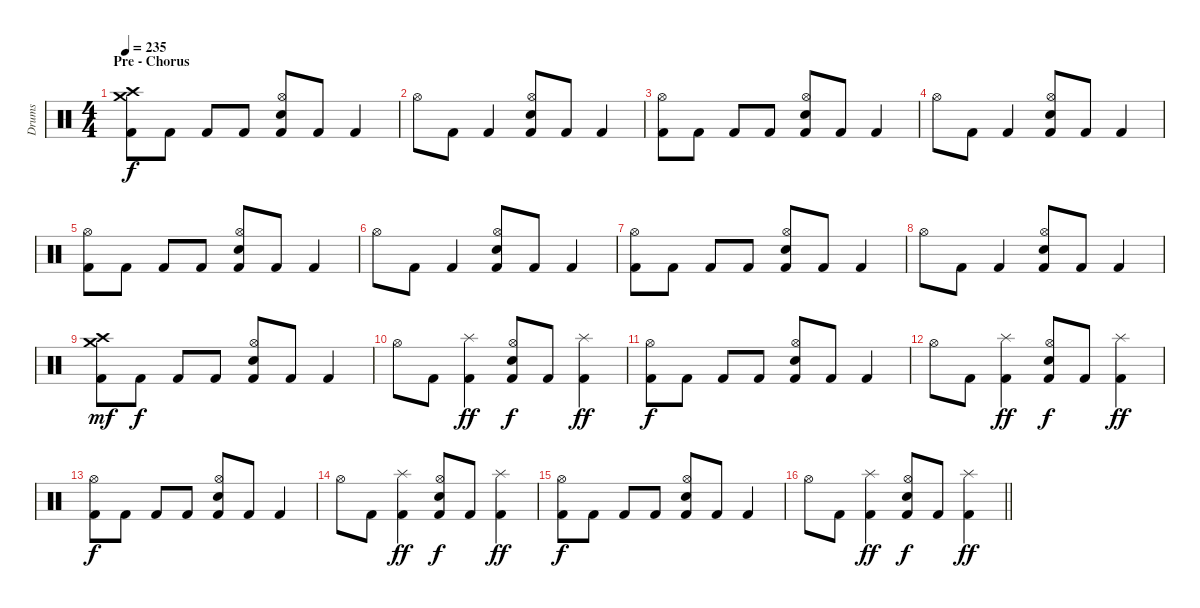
\track ("Drums" "Drums") {instrument percussion}
\staff {score}
\articulation defaults
\ts (4 4)
\section ("" "Pre - Chorus")
\tempo 235
\clef neutral
\ks c
("Crash medium (hit)" "Crash high (hit)" "Kick (hit) 2").8{dy f} "Kick (hit) 2".8 "Kick (hit) 2".8 "Kick (hit) 2".8 ("Hi-Hat (open)" "Electric Snare (hit)" "Kick (hit) 2").8 "Kick (hit) 2".8 "Kick (hit) 2".4 |
"Hi-Hat (open)".8 "Kick (hit) 2".8 "Kick (hit) 2".4 ("Hi-Hat (open)" "Electric Snare (hit)" "Kick (hit) 2").8 "Kick (hit) 2".8 "Kick (hit) 2".4 |
("Hi-Hat (open)" "Kick (hit) 2").8 "Kick (hit) 2".8 "Kick (hit) 2".8 "Kick (hit) 2".8 ("Hi-Hat (open)" "Electric Snare (hit)" "Kick (hit) 2").8 "Kick (hit) 2".8 "Kick (hit) 2".4 |
"Hi-Hat (open)".8 "Kick (hit) 2".8 "Kick (hit) 2".4 ("Hi-Hat (open)" "Electric Snare (hit)" "Kick (hit) 2").8 "Kick (hit) 2".8 "Kick (hit) 2".4 |
("Hi-Hat (open)" "Kick (hit) 2").8 "Kick (hit) 2".8 "Kick (hit) 2".8 "Kick (hit) 2".8 ("Hi-Hat (open)" "Electric Snare (hit)" "Kick (hit) 2").8 "Kick (hit) 2".8 "Kick (hit) 2".4 |
"Hi-Hat (open)".8 "Kick (hit) 2".8 "Kick (hit) 2".4 ("Hi-Hat (open)" "Electric Snare (hit)" "Kick (hit) 2").8 "Kick (hit) 2".8 "Kick (hit) 2".4 |
("Hi-Hat (open)" "Kick (hit) 2").8 "Kick (hit) 2".8 "Kick (hit) 2".8 "Kick (hit) 2".8 ("Hi-Hat (open)" "Electric Snare (hit)" "Kick (hit) 2").8 "Kick (hit) 2".8 "Kick (hit) 2".4 |
"Hi-Hat (open)".8 "Kick (hit) 2".8 "Kick (hit) 2".4 ("Hi-Hat (open)" "Electric Snare (hit)" "Kick (hit) 2").8 "Kick (hit) 2".8 "Kick (hit) 2".4 |
("Crash medium (hit)" "Crash high (hit)" "Kick (hit) 2").8{dy mf} "Kick (hit) 2".8{dy f} "Kick (hit) 2".8 "Kick (hit) 2".8 ("Hi-Hat (open)" "Electric Snare (hit)" "Kick (hit) 2").8 "Kick (hit) 2".8 "Kick (hit) 2".4 |
"Hi-Hat (open)".8 "Kick (hit) 2".8 ("Splash (hit)" "Kick (hit) 2").4{dy ff} ("Hi-Hat (open)" "Electric Snare (hit)" "Kick (hit) 2").8{dy f} "Kick (hit) 2".8 ("Splash (hit)" "Kick (hit) 2").4{dy ff} |
("Hi-Hat (open)" "Kick (hit) 2").8{dy f} "Kick (hit) 2".8 "Kick (hit) 2".8 "Kick (hit) 2".8 ("Hi-Hat (open)" "Electric Snare (hit)" "Kick (hit) 2").8 "Kick (hit) 2".8 "Kick (hit) 2".4 |
"Hi-Hat (open)".8 "Kick (hit) 2".8 ("Splash (hit)" "Kick (hit) 2").4{dy ff} ("Hi-Hat (open)" "Electric Snare (hit)" "Kick (hit) 2").8{dy f} "Kick (hit) 2".8 ("Splash (hit)" "Kick (hit) 2").4{dy ff} |
("Hi-Hat (open)" "Kick (hit) 2").8{dy f} "Kick (hit) 2".8 "Kick (hit) 2".8 "Kick (hit) 2".8 ("Hi-Hat (open)" "Electric Snare (hit)" "Kick (hit) 2").8 "Kick (hit) 2".8 "Kick (hit) 2".4 |
"Hi-Hat (open)".8 "Kick (hit) 2".8 ("Splash (hit)" "Kick (hit) 2").4{dy ff} ("Hi-Hat (open)" "Electric Snare (hit)" "Kick (hit) 2").8{dy f} "Kick (hit) 2".8 ("Splash (hit)" "Kick (hit) 2").4{dy ff} |
("Hi-Hat (open)" "Kick (hit) 2").8{dy f} "Kick (hit) 2".8 "Kick (hit) 2".8 "Kick (hit) 2".8 ("Hi-Hat (open)" "Electric Snare (hit)" "Kick (hit) 2").8 "Kick (hit) 2".8 "Kick (hit) 2".4 |
\barLineRight lightlight "Hi-Hat (open)".8 "Kick (hit) 2".8
("Splash (hit)" "Kick (hit) 2").4{dy ff} ("Hi-Hat (open)" "Electric Snare (hit)" "Kick (hit) 2").8{dy f} "Kick (hit) 2".8 ("Splash (hit)" "Kick (hit) 2").4{dy ff}
